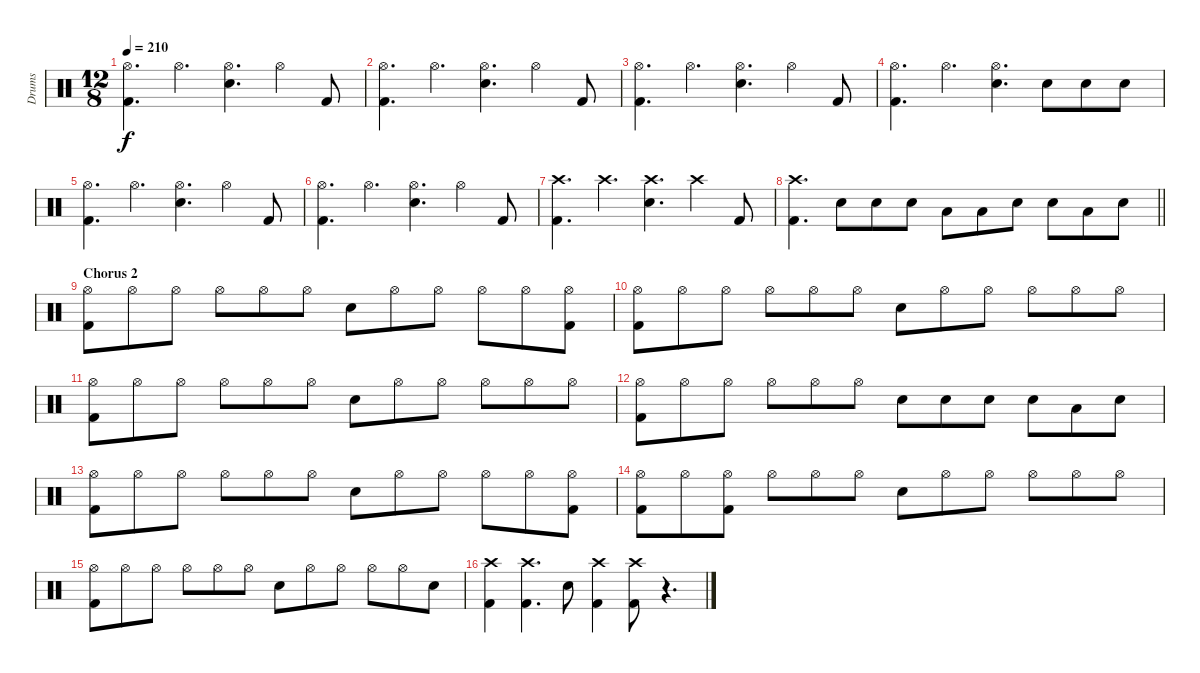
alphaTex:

\track ("Drums" "Drums") {instrument percussion}
\staff {score}
\articulation defaults
\ts (12 8)
\tempo 210
\clef neutral
\ks c
("Hi-Hat (open)" "Kick (hit) 2").4{d dy f} "Hi-Hat (open)".4{d} ("Hi-Hat (open)" "Electric Snare (hit)").4{d} "Hi-Hat (open)".4 "Kick (hit) 2".8 |
("Hi-Hat (open)" "Kick (hit) 2").4{d} "Hi-Hat (open)".4{d} ("Hi-Hat (open)" "Electric Snare (hit)").4{d} "Hi-Hat (open)".4 "Kick (hit) 2".8 |
("Hi-Hat (open)" "Kick (hit) 2").4{d} "Hi-Hat (open)".4{d} ("Hi-Hat (open)" "Electric Snare (hit)").4{d} "Hi-Hat (open)".4 "Kick (hit) 2".8 |
("Hi-Hat (open)" "Kick (hit) 2").4{d} "Hi-Hat (open)".4{d} ("Hi-Hat (open)" "Electric Snare (hit)").4{d} "Electric Snare (hit)".8 "Electric Snare (hit)".8 "Electric Snare (hit)".8 |
("Hi-Hat (open)" "Kick (hit) 2").4{d} "Hi-Hat (open)".4{d} ("Hi-Hat (open)" "Electric Snare (hit)").4{d} "Hi-Hat (open)".4 "Kick (hit) 2".8 |
("Hi-Hat (open)" "Kick (hit) 2").4{d} "Hi-Hat (open)".4{d} ("Hi-Hat (open)" "Electric Snare (hit)").4{d} "Hi-Hat (open)".4 "Kick (hit) 2".8 |
("Crash high (hit)" "Kick (hit) 2").4{d} "Crash high (hit)".4{d} ("Crash high (hit)" "Electric Snare (hit)").4{d} "Crash high (hit)".4 "Kick (hit) 2".8 |
\barLineRight lightlight
("Crash high (hit)" "Kick (hit) 2").4{d} "Electric Snare (hit)".8 "Electric Snare (hit)".8 "Electric Snare (hit)".8 "Low Tom (hit)".8 "Low Tom (hit)".8 "Electric Snare (hit)".8 "Electric Snare (hit)".8 "Low Tom (hit)".8 "Electric Snare (hit)".8 |
\section ("" "Chorus 2")
("Hi-Hat (open)" "Kick (hit) 2").8 "Hi-Hat (open)".8 "Hi-Hat (open)".8 "Hi-Hat (open)".8 "Hi-Hat (open)".8 "Hi-Hat (open)".8 "Electric Snare (hit)".8 "Hi-Hat (open)".8 "Hi-Hat (open)".8 "Hi-Hat (open)".8 "Hi-Hat (open)".8 ("Hi-Hat (open)" "Kick (hit) 2").8 |
("Hi-Hat (open)" "Kick (hit) 2").8 "Hi-Hat (open)".8 "Hi-Hat (open)".8 "Hi-Hat (open)".8 "Hi-Hat (open)".8 "Hi-Hat (open)".8 "Electric Snare (hit)".8 "Hi-Hat (open)".8 "Hi-Hat (open)".8 "Hi-Hat (open)".8 "Hi-Hat (open)".8 "Hi-Hat (open)".8 |
("Hi-Hat (open)" "Kick (hit) 2").8 "Hi-Hat (open)".8 "Hi-Hat (open)".8 "Hi-Hat (open)".8 "Hi-Hat (open)".8 "Hi-Hat (open)".8 "Electric Snare (hit)".8 "Hi-Hat (open)".8 "Hi-Hat (open)".8 "Hi-Hat (open)".8 "Hi-Hat (open)".8 "Hi-Hat (open)".8 |
("Hi-Hat (open)" "Kick (hit) 2").8 "Hi-Hat (open)".8 "Hi-Hat (open)".8 "Hi-Hat (open)".8 "Hi-Hat (open)".8 "Hi-Hat (open)".8 "Electric Snare (hit)".8 "Electric Snare (hit)".8 "Electric Snare (hit)".8 "Electric Snare (hit)".8 "Low Tom (hit)".8 "Electric Snare (hit)".8 |
("Hi-Hat (open)" "Kick (hit) 2").8 "Hi-Hat (open)".8 "Hi-Hat (open)".8 "Hi-Hat (open)".8 "Hi-Hat (open)".8 "Hi-Hat (open)".8 "Electric Snare (hit)".8 "Hi-Hat (open)".8 "Hi-Hat (open)".8 "Hi-Hat (open)".8 "Hi-Hat (open)".8 ("Hi-Hat (open)" "Kick (hit) 2").8 |
("Hi-Hat (open)" "Kick (hit) 2").8 "Hi-Hat (open)".8 ("Hi-Hat (open)" "Kick (hit) 2").8 "Hi-Hat (open)".8 "Hi-Hat (open)".8 "Hi-Hat (open)".8 "Electric Snare (hit)".8 "Hi-Hat (open)".8 "Hi-Hat (open)".8 "Hi-Hat (open)".8 "Hi-Hat (open)".8 "Hi-Hat (open)".8 |
("Hi-Hat (open)" "Kick (hit) 2").8 "Hi-Hat (open)".8 "Hi-Hat (open)".8 "Hi-Hat (open)".8 "Hi-Hat (open)".8 "Hi-Hat (open)".8 "Electric Snare (hit)".8 "Hi-Hat (open)".8 "Hi-Hat (open)".8 "Hi-Hat (open)".8 "Hi-Hat (open)".8 "Electric Snare (hit)".8 |
("Crash high (hit)" "Kick (hit) 2").4 ("Crash high (hit)" "Kick (hit) 2").4{d} "Electric Snare (hit)".8 ("Crash high (hit)" "Kick (hit) 2").4 ("Crash high (hit)" "Kick (hit) 2").8 r.4{d}
